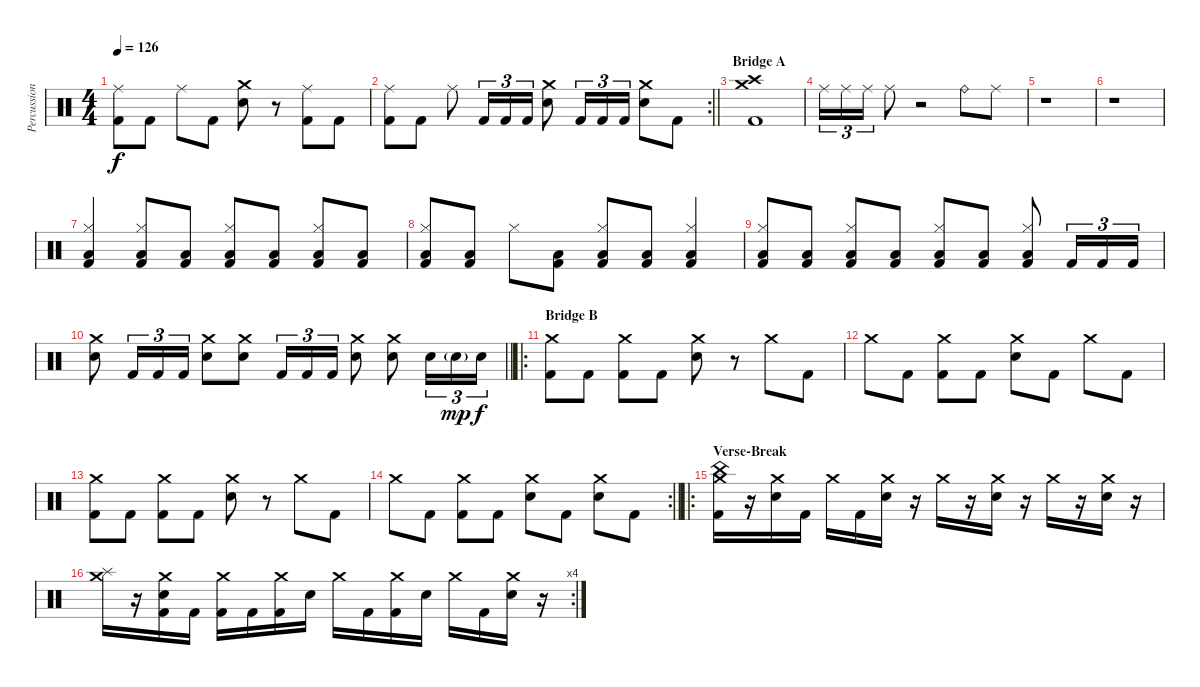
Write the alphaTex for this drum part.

\track ("Percussion" "Percussion") {instrument percussion}
\staff {score}
\articulation defaults
\ts (4 4)
\tempo 126
\clef neutral
\ks c
("Ride (middle)" "Kick (hit) 2").8{dy f} "Kick (hit) 2".8 "Ride (middle)".8 "Kick (hit) 2".8 ("Crash medium (hit)" "Electric Snare (hit)").8 r.8 ("Ride (middle)" "Kick (hit) 2").8 "Kick (hit) 2".8 |
\rc 2
\barLineRight lightlight
("Ride (middle)" "Kick (hit) 2").8 "Kick (hit) 2".8 "Ride (middle)".8 "Kick (hit) 2".16{tu (3 2)} "Kick (hit) 2".16{tu (3 2)} "Kick (hit) 2".16{tu (3 2)} ("Crash medium (hit)" "Electric Snare (hit)").8 "Kick (hit) 2".16{tu (3 2)} "Kick (hit) 2".16{tu (3 2)} "Kick (hit) 2".16{tu (3 2)} ("Crash medium (hit)" "Electric Snare (hit)").8 "Kick (hit) 2".8 |
\section ("" "Bridge A")
("Crash medium (hit)" "Crash high (hit)" "Kick (hit) 2").1 |
"Ride (middle)".16{tu (3 2)} "Ride (middle)".16{tu (3 2)} "Ride (middle)".16{tu (3 2)} "Ride (middle)".8 r.2 "Ride (bell)".8 "Ride (middle)".8 |
r.1 |
r.1 |
("Hi-Hat (closed)" "Low Floor Tom (hit)" "Kick (hit) 2").4 ("Hi-Hat (closed)" "Low Floor Tom (hit)" "Kick (hit) 2").8 ("Low Floor Tom (hit)" "Kick (hit) 2").8 ("Hi-Hat (closed)" "Low Floor Tom (hit)" "Kick (hit) 2").8 ("Low Floor Tom (hit)" "Kick (hit) 2").8 ("Hi-Hat (closed)" "Low Floor Tom (hit)" "Kick (hit) 2").8 ("Low Floor Tom (hit)" "Kick (hit) 2").8 |
("Hi-Hat (closed)" "Low Floor Tom (hit)" "Kick (hit) 2").8 ("Low Floor Tom (hit)" "Kick (hit) 2").8 "Hi-Hat (closed)".8 ("Low Floor Tom (hit)" "Kick (hit) 2").8 ("Hi-Hat (closed)" "Low Floor Tom (hit)" "Kick (hit) 2").8 ("Low Floor Tom (hit)" "Kick (hit) 2").8 ("Hi-Hat (closed)" "Low Floor Tom (hit)" "Kick (hit) 2").4 |
("Hi-Hat (closed)" "Low Floor Tom (hit)" "Kick (hit) 2").8 ("Low Floor Tom (hit)" "Kick (hit) 2").8 ("Hi-Hat (closed)" "Low Floor Tom (hit)" "Kick (hit) 2").8 ("Low Floor Tom (hit)" "Kick (hit) 2").8 ("Hi-Hat (closed)" "Low Floor Tom (hit)" "Kick (hit) 2").8 ("Low Floor Tom (hit)" "Kick (hit) 2").8 ("Hi-Hat (closed)" "Low Floor Tom (hit)" "Kick (hit) 2").8 "Kick (hit) 2".16{tu (3 2)} "Kick (hit) 2".16{tu (3 2)} "Kick (hit) 2".16{tu (3 2)} |
\barLineRight lightlight
("Crash medium (hit)" "Electric Snare (hit)").8 "Kick (hit) 2".16{tu (3 2)} "Kick (hit) 2".16{tu (3 2)} "Kick (hit) 2".16{tu (3 2)} ("Crash medium (hit)" "Electric Snare (hit)").8 ("Crash medium (hit)" "Electric Snare (hit)").8 "Kick (hit) 2".16{tu (3 2)} "Kick (hit) 2".16{tu (3 2)} "Kick (hit) 2".16{tu (3 2)} ("Crash medium (hit)" "Electric Snare (hit)").8 ("Crash medium (hit)" "Electric Snare (hit)").8 "Electric Snare (hit)".16{tu (3 2)} "Electric Snare (hit)"{g}.16{tu (3 2) dy mp} "Electric Snare (hit)".16{tu (3 2) dy f} |
\ro
\section ("" "Bridge B")
("Crash medium (hit)" "Kick (hit) 2").8 "Kick (hit) 2".8 ("Crash medium (hit)" "Kick (hit) 2").8 "Kick (hit) 2".8 ("Crash medium (hit)" "Electric Snare (hit)").8 r.8 "Crash medium (hit)".8 "Kick (hit) 2".8 |
"Crash medium (hit)".8 "Kick (hit) 2".8 ("Crash medium (hit)" "Kick (hit) 2").8 "Kick (hit) 2".8 ("Crash medium (hit)" "Electric Snare (hit)").8 "Kick (hit) 2".8 "Crash medium (hit)".8 "Kick (hit) 2".8 |
("Crash medium (hit)" "Kick (hit) 2").8 "Kick (hit) 2".8 ("Crash medium (hit)" "Kick (hit) 2").8 "Kick (hit) 2".8 ("Crash medium (hit)" "Electric Snare (hit)").8 r.8 "Crash medium (hit)".8 "Kick (hit) 2".8 |
\rc 2
\barLineRight lightlight "Crash medium (hit)".8 "Kick (hit) 2".8
("Crash medium (hit)" "Kick (hit) 2").8 "Kick (hit) 2".8 ("Crash medium (hit)" "Electric Snare (hit)").8 "Kick (hit) 2".8 ("Crash medium (hit)" "Electric Snare (hit)").8 "Kick (hit) 2".8 |
\ro
\section ("" "Verse-Break")
("Crash medium (hit)" "China (hit)" "Kick (hit) 2").16 r.16 ("Crash medium (hit)" "Electric Snare (hit)").16 "Kick (hit) 2".16 "Crash medium (hit)".16 "Kick (hit) 2".16 ("Crash medium (hit)" "Electric Snare (hit)").16 r.16 "Crash medium (hit)".16 r.16 ("Crash medium (hit)" "Electric Snare (hit)").16 r.16 "Crash medium (hit)".16 r.16 ("Crash medium (hit)" "Electric Snare (hit)").16 r.16 |
\rc 4
("Crash medium (hit)" "Splash (hit)").16 r.16 ("Crash medium (hit)" "Electric Snare (hit)" "Kick (hit) 2").16 "Kick (hit) 2".16 ("Crash medium (hit)" "Kick (hit) 2").16 "Kick (hit) 2".16 ("Crash medium (hit)" "Kick (hit) 2").16 "Electric Snare (hit)".16 "Crash medium (hit)".16 "Kick (hit) 2".16 ("Crash medium (hit)" "Kick (hit) 2").16 "Electric Snare (hit)".16 "Crash medium (hit)".16 "Kick (hit) 2".16 ("Crash medium (hit)" "Electric Snare (hit)").16 r.16
